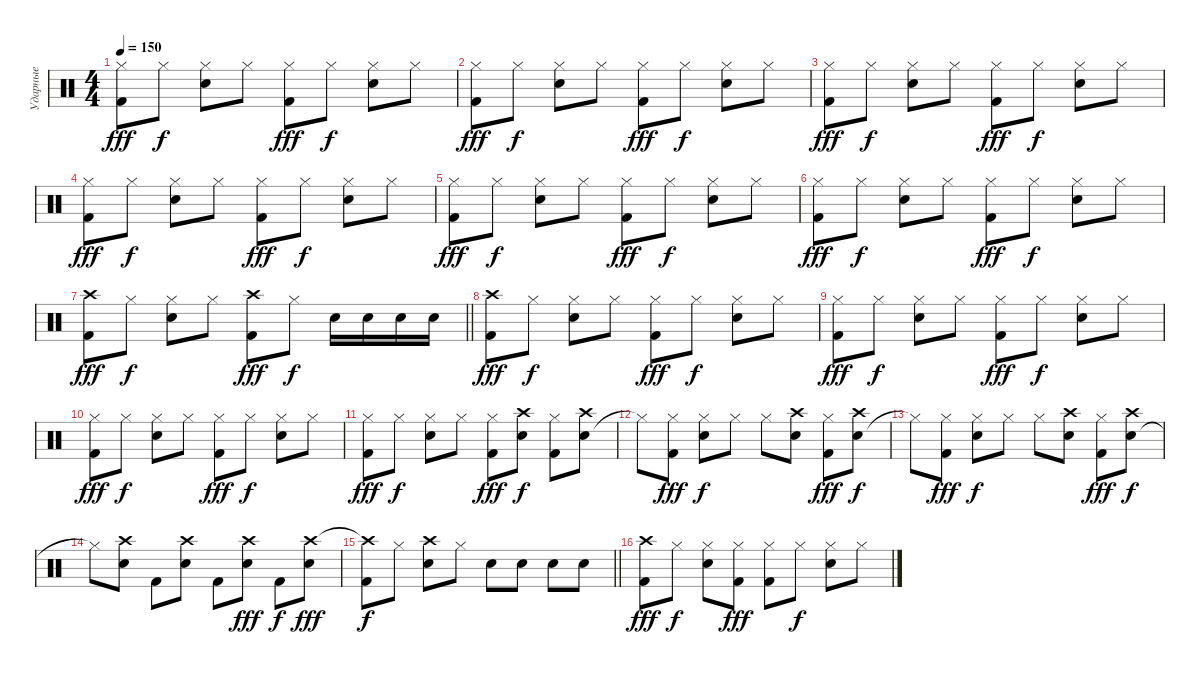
\track ("Ударные" "Ударные") {instrument percussion}
\staff
\articulation defaults
\ts (4 4)
\tempo 150
\clef neutral
\ks c
("Kick (hit) 2" "Hi-Hat (closed)").8{dy fff} "Hi-Hat (closed)".8{dy f} ("Snare (hit) 2" "Hi-Hat (closed)").8 "Hi-Hat (closed)".8 ("Kick (hit) 2" "Hi-Hat (closed)").8{dy fff} "Hi-Hat (closed)".8{dy f} ("Snare (hit) 2" "Hi-Hat (closed)").8 "Hi-Hat (closed)".8 |
("Kick (hit) 2" "Hi-Hat (closed)").8{dy fff} "Hi-Hat (closed)".8{dy f} ("Snare (hit) 2" "Hi-Hat (closed)").8 "Hi-Hat (closed)".8 ("Kick (hit) 2" "Hi-Hat (closed)").8{dy fff} "Hi-Hat (closed)".8{dy f} ("Snare (hit) 2" "Hi-Hat (closed)").8 "Hi-Hat (closed)".8 |
("Kick (hit) 2" "Hi-Hat (closed)").8{dy fff} "Hi-Hat (closed)".8{dy f} ("Snare (hit) 2" "Hi-Hat (closed)").8 "Hi-Hat (closed)".8 ("Kick (hit) 2" "Hi-Hat (closed)").8{dy fff} "Hi-Hat (closed)".8{dy f} ("Snare (hit) 2" "Hi-Hat (closed)").8 "Hi-Hat (closed)".8 |
("Kick (hit) 2" "Hi-Hat (closed)").8{dy fff} "Hi-Hat (closed)".8{dy f} ("Snare (hit) 2" "Hi-Hat (closed)").8 "Hi-Hat (closed)".8 ("Kick (hit) 2" "Hi-Hat (closed)").8{dy fff} "Hi-Hat (closed)".8{dy f} ("Snare (hit) 2" "Hi-Hat (closed)").8 "Hi-Hat (closed)".8 |
("Kick (hit) 2" "Hi-Hat (closed)").8{dy fff} "Hi-Hat (closed)".8{dy f} ("Snare (hit) 2" "Hi-Hat (closed)").8 "Hi-Hat (closed)".8 ("Kick (hit) 2" "Hi-Hat (closed)").8{dy fff} "Hi-Hat (closed)".8{dy f} ("Snare (hit) 2" "Hi-Hat (closed)").8 "Hi-Hat (closed)".8 |
("Kick (hit) 2" "Hi-Hat (closed)").8{dy fff} "Hi-Hat (closed)".8{dy f} ("Snare (hit) 2" "Hi-Hat (closed)").8 "Hi-Hat (closed)".8 ("Kick (hit) 2" "Hi-Hat (closed)").8{dy fff} "Hi-Hat (closed)".8{dy f} ("Snare (hit) 2" "Hi-Hat (closed)").8 "Hi-Hat (closed)".8 |
\barLineRight lightlight
("Kick (hit) 2" "Crash high (hit)").8{dy fff} "Hi-Hat (closed)".8{dy f} ("Snare (hit) 2" "Hi-Hat (closed)").8 "Hi-Hat (closed)".8 ("Kick (hit) 2" "Crash high (hit)").8{dy fff} "Hi-Hat (closed)".8{dy f} "Snare (hit) 2".16 "Snare (hit) 2".16 "Snare (hit) 2".16 "Snare (hit) 2".16 |
("Kick (hit) 2" "Crash high (hit)").8{dy fff} "Hi-Hat (closed)".8{dy f} ("Snare (hit) 2" "Hi-Hat (closed)").8 "Hi-Hat (closed)".8 ("Kick (hit) 2" "Hi-Hat (closed)").8{dy fff} "Hi-Hat (closed)".8{dy f} ("Snare (hit) 2" "Hi-Hat (closed)").8 "Hi-Hat (closed)".8 |
("Kick (hit) 2" "Hi-Hat (closed)").8{dy fff} "Hi-Hat (closed)".8{dy f} ("Snare (hit) 2" "Hi-Hat (closed)").8 "Hi-Hat (closed)".8 ("Kick (hit) 2" "Hi-Hat (closed)").8{dy fff} "Hi-Hat (closed)".8{dy f} ("Snare (hit) 2" "Hi-Hat (closed)").8 "Hi-Hat (closed)".8 |
("Kick (hit) 2" "Hi-Hat (closed)").8{dy fff} "Hi-Hat (closed)".8{dy f} ("Snare (hit) 2" "Hi-Hat (closed)").8 "Hi-Hat (closed)".8 ("Kick (hit) 2" "Hi-Hat (closed)").8{dy fff} "Hi-Hat (closed)".8{dy f} ("Snare (hit) 2" "Hi-Hat (closed)").8 "Hi-Hat (closed)".8 |
("Kick (hit) 2" "Hi-Hat (closed)").8{dy fff} "Hi-Hat (closed)".8{dy f} ("Snare (hit) 2" "Hi-Hat (closed)").8 "Hi-Hat (closed)".8 ("Kick (hit) 2" "Hi-Hat (closed)").8{dy fff} ("Snare (hit) 2" "Crash high (hit)").8{dy f} ("Kick (hit) 2" "Hi-Hat (closed)").8 ("Snare (hit) 2" "Crash high (hit)").8 |
"Hi-Hat (closed)"{t}.8 ("Kick (hit) 2" "Hi-Hat (closed)").8{dy fff} ("Snare (hit) 2" "Hi-Hat (closed)").8{dy f} "Hi-Hat (closed)".8 "Hi-Hat (closed)".8 ("Snare (hit) 2" "Crash high (hit)").8 ("Kick (hit) 2" "Hi-Hat (closed)").8{dy fff} ("Snare (hit) 2" "Crash high (hit)").8{dy f} |
"Hi-Hat (closed)"{t}.8 ("Kick (hit) 2" "Hi-Hat (closed)").8{dy fff} ("Snare (hit) 2" "Hi-Hat (closed)").8{dy f} "Hi-Hat (closed)".8 "Hi-Hat (closed)".8 ("Snare (hit) 2" "Crash high (hit)").8 ("Kick (hit) 2" "Hi-Hat (closed)").8{dy fff} ("Snare (hit) 2" "Crash high (hit)").8{dy f} |
"Hi-Hat (closed)"{t}.8 ("Snare (hit) 2" "Crash high (hit)").8 "Kick (hit) 2".8 ("Snare (hit) 2" "Crash high (hit)").8 "Kick (hit) 2".8 ("Snare (hit) 2" "Crash high (hit)").8{dy fff} "Kick (hit) 2".8{dy f} ("Snare (hit) 2" "Crash high (hit)").8{dy fff} |
\barLineRight lightlight
("Kick (hit) 2" "Crash high (hit)"{t}).8{dy f} "Hi-Hat (closed)".8 ("Snare (hit) 2" "Crash high (hit)").8 "Hi-Hat (closed)".8 "Snare (hit) 2".8 "Snare (hit) 2".8 "Snare (hit) 2".8 "Snare (hit) 2".8 |
("Kick (hit) 2" "Crash high (hit)").8{dy fff} "Hi-Hat (closed)".8{dy f} ("Snare (hit) 2" "Hi-Hat (closed)").8 ("Kick (hit) 2" "Hi-Hat (closed)").8{dy fff} ("Kick (hit) 2" "Hi-Hat (closed)").8 "Hi-Hat (closed)".8{dy f} ("Snare (hit) 2" "Hi-Hat (closed)").8 "Hi-Hat (closed)".8
